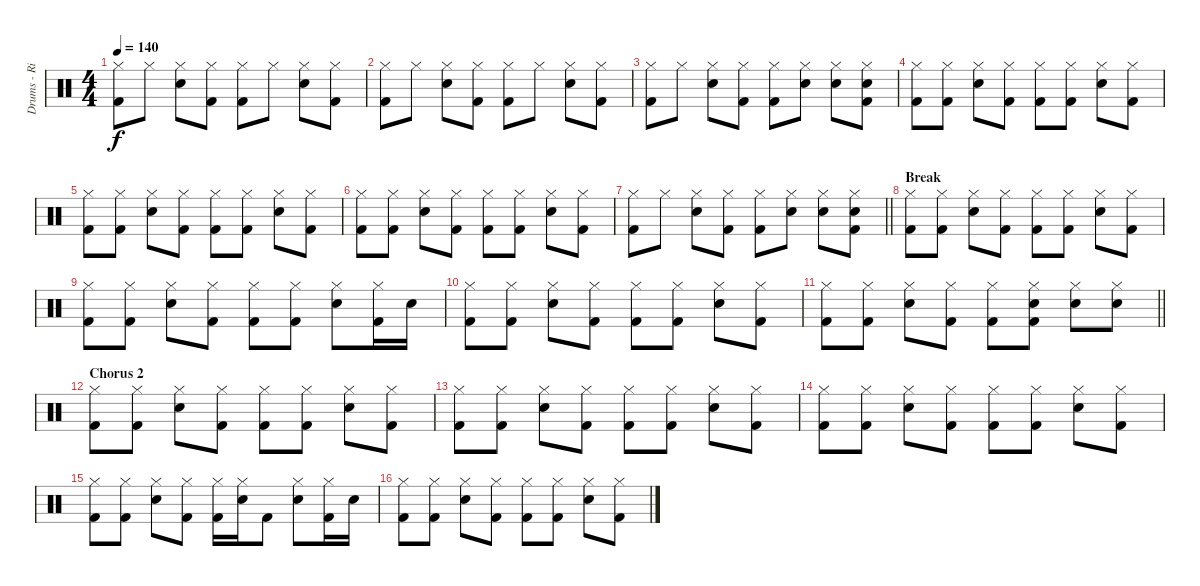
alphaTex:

\track ("Drums - Richard Thomas" "Drums - Ri") {instrument percussion}
\staff {score}
\articulation defaults
\ts (4 4)
\tempo 140
\clef neutral
\ks c
("Kick (hit) 2" "Hi-Hat (closed)").8{dy f} "Hi-Hat (closed)".8 ("Electric Snare (hit)" "Hi-Hat (closed)").8 ("Kick (hit) 2" "Hi-Hat (closed)").8 ("Kick (hit) 2" "Hi-Hat (closed)").8 "Hi-Hat (closed)".8 ("Electric Snare (hit)" "Hi-Hat (closed)").8 ("Kick (hit) 2" "Hi-Hat (closed)").8 |
("Kick (hit) 2" "Hi-Hat (closed)").8 "Hi-Hat (closed)".8 ("Electric Snare (hit)" "Hi-Hat (closed)").8 ("Kick (hit) 2" "Hi-Hat (closed)").8 ("Kick (hit) 2" "Hi-Hat (closed)").8 "Hi-Hat (closed)".8 ("Electric Snare (hit)" "Hi-Hat (closed)").8 ("Kick (hit) 2" "Hi-Hat (closed)").8 |
("Kick (hit) 2" "Hi-Hat (closed)").8 "Hi-Hat (closed)".8 ("Electric Snare (hit)" "Hi-Hat (closed)").8 ("Kick (hit) 2" "Hi-Hat (closed)").8 ("Kick (hit) 2" "Hi-Hat (closed)").8 ("Electric Snare (hit)" "Hi-Hat (closed)").8 ("Electric Snare (hit)" "Hi-Hat (closed)").8 ("Electric Snare (hit)" "Kick (hit) 2" "Hi-Hat (closed)").8 |
("Kick (hit) 2" "Hi-Hat (closed)").8 ("Kick (hit) 2" "Hi-Hat (closed)").8 ("Electric Snare (hit)" "Hi-Hat (closed)").8 ("Kick (hit) 2" "Hi-Hat (closed)").8 ("Kick (hit) 2" "Hi-Hat (closed)").8 ("Kick (hit) 2" "Hi-Hat (closed)").8 ("Electric Snare (hit)" "Hi-Hat (closed)").8 ("Kick (hit) 2" "Hi-Hat (closed)").8 |
("Kick (hit) 2" "Hi-Hat (closed)").8 ("Kick (hit) 2" "Hi-Hat (closed)").8 ("Electric Snare (hit)" "Hi-Hat (closed)").8 ("Kick (hit) 2" "Hi-Hat (closed)").8 ("Kick (hit) 2" "Hi-Hat (closed)").8 ("Kick (hit) 2" "Hi-Hat (closed)").8 ("Electric Snare (hit)" "Hi-Hat (closed)").8 ("Kick (hit) 2" "Hi-Hat (closed)").8 |
("Kick (hit) 2" "Hi-Hat (closed)").8 ("Kick (hit) 2" "Hi-Hat (closed)").8 ("Electric Snare (hit)" "Hi-Hat (closed)").8 ("Kick (hit) 2" "Hi-Hat (closed)").8 ("Kick (hit) 2" "Hi-Hat (closed)").8 ("Kick (hit) 2" "Hi-Hat (closed)").8 ("Electric Snare (hit)" "Hi-Hat (closed)").8 ("Kick (hit) 2" "Hi-Hat (closed)").8 |
\barLineRight lightlight
("Kick (hit) 2" "Hi-Hat (closed)").8 "Hi-Hat (closed)".8 ("Electric Snare (hit)" "Hi-Hat (closed)").8 ("Kick (hit) 2" "Hi-Hat (closed)").8 ("Kick (hit) 2" "Hi-Hat (closed)").8 ("Electric Snare (hit)" "Hi-Hat (closed)").8 ("Electric Snare (hit)" "Hi-Hat (closed)").8 ("Electric Snare (hit)" "Kick (hit) 2" "Hi-Hat (closed)").8 |
\section ("" "Break")
("Kick (hit) 2" "Hi-Hat (closed)").8 ("Kick (hit) 2" "Hi-Hat (closed)").8 ("Electric Snare (hit)" "Hi-Hat (closed)").8 ("Kick (hit) 2" "Hi-Hat (closed)").8 ("Kick (hit) 2" "Hi-Hat (closed)").8 ("Kick (hit) 2" "Hi-Hat (closed)").8 ("Electric Snare (hit)" "Hi-Hat (closed)").8 ("Kick (hit) 2" "Hi-Hat (closed)").8 |
("Kick (hit) 2" "Hi-Hat (closed)").8 ("Kick (hit) 2" "Hi-Hat (closed)").8 ("Electric Snare (hit)" "Hi-Hat (closed)").8 ("Kick (hit) 2" "Hi-Hat (closed)").8 ("Kick (hit) 2" "Hi-Hat (closed)").8 ("Kick (hit) 2" "Hi-Hat (closed)").8 ("Electric Snare (hit)" "Hi-Hat (closed)").8 ("Kick (hit) 2" "Hi-Hat (closed)").16 "Electric Snare (hit)".16 |
("Kick (hit) 2" "Hi-Hat (closed)").8 ("Kick (hit) 2" "Hi-Hat (closed)").8 ("Electric Snare (hit)" "Hi-Hat (closed)").8 ("Kick (hit) 2" "Hi-Hat (closed)").8 ("Kick (hit) 2" "Hi-Hat (closed)").8 ("Kick (hit) 2" "Hi-Hat (closed)").8 ("Electric Snare (hit)" "Hi-Hat (closed)").8 ("Kick (hit) 2" "Hi-Hat (closed)").8 |
\barLineRight lightlight
("Kick (hit) 2" "Hi-Hat (closed)").8 ("Kick (hit) 2" "Hi-Hat (closed)").8 ("Electric Snare (hit)" "Hi-Hat (closed)").8 ("Kick (hit) 2" "Hi-Hat (closed)").8 ("Kick (hit) 2" "Hi-Hat (closed)").8 ("Electric Snare (hit)" "Kick (hit) 2" "Hi-Hat (closed)").8 ("Electric Snare (hit)" "Hi-Hat (closed)").8 ("Electric Snare (hit)" "Hi-Hat (closed)").8 |
\section ("" "Chorus 2")
("Kick (hit) 2" "Hi-Hat (closed)").8 ("Kick (hit) 2" "Hi-Hat (closed)").8 ("Electric Snare (hit)" "Hi-Hat (closed)").8 ("Kick (hit) 2" "Hi-Hat (closed)").8 ("Kick (hit) 2" "Hi-Hat (closed)").8 ("Kick (hit) 2" "Hi-Hat (closed)").8 ("Electric Snare (hit)" "Hi-Hat (closed)").8 ("Kick (hit) 2" "Hi-Hat (closed)").8 |
("Kick (hit) 2" "Hi-Hat (closed)").8 ("Kick (hit) 2" "Hi-Hat (closed)").8 ("Electric Snare (hit)" "Hi-Hat (closed)").8 ("Kick (hit) 2" "Hi-Hat (closed)").8 ("Kick (hit) 2" "Hi-Hat (closed)").8 ("Kick (hit) 2" "Hi-Hat (closed)").8 ("Electric Snare (hit)" "Hi-Hat (closed)").8 ("Kick (hit) 2" "Hi-Hat (closed)").8 |
("Kick (hit) 2" "Hi-Hat (closed)").8 ("Kick (hit) 2" "Hi-Hat (closed)").8 ("Electric Snare (hit)" "Hi-Hat (closed)").8 ("Kick (hit) 2" "Hi-Hat (closed)").8 ("Kick (hit) 2" "Hi-Hat (closed)").8 ("Kick (hit) 2" "Hi-Hat (closed)").8 ("Electric Snare (hit)" "Hi-Hat (closed)").8 ("Kick (hit) 2" "Hi-Hat (closed)").8 |
("Kick (hit) 2" "Hi-Hat (closed)").8 ("Kick (hit) 2" "Hi-Hat (closed)").8 ("Electric Snare (hit)" "Hi-Hat (closed)").8 ("Kick (hit) 2" "Hi-Hat (closed)").8 ("Kick (hit) 2" "Hi-Hat (closed)").16 ("Electric Snare (hit)" "Hi-Hat (closed)").16 "Kick (hit) 2".8 ("Electric Snare (hit)" "Hi-Hat (closed)").8 ("Kick (hit) 2" "Hi-Hat (closed)").16 "Electric Snare (hit)".16 |
("Kick (hit) 2" "Hi-Hat (closed)").8 ("Kick (hit) 2" "Hi-Hat (closed)").8 ("Electric Snare (hit)" "Hi-Hat (closed)").8 ("Kick (hit) 2" "Hi-Hat (closed)").8 ("Kick (hit) 2" "Hi-Hat (closed)").8 ("Kick (hit) 2" "Hi-Hat (closed)").8 ("Electric Snare (hit)" "Hi-Hat (closed)").8 ("Kick (hit) 2" "Hi-Hat (closed)").8
